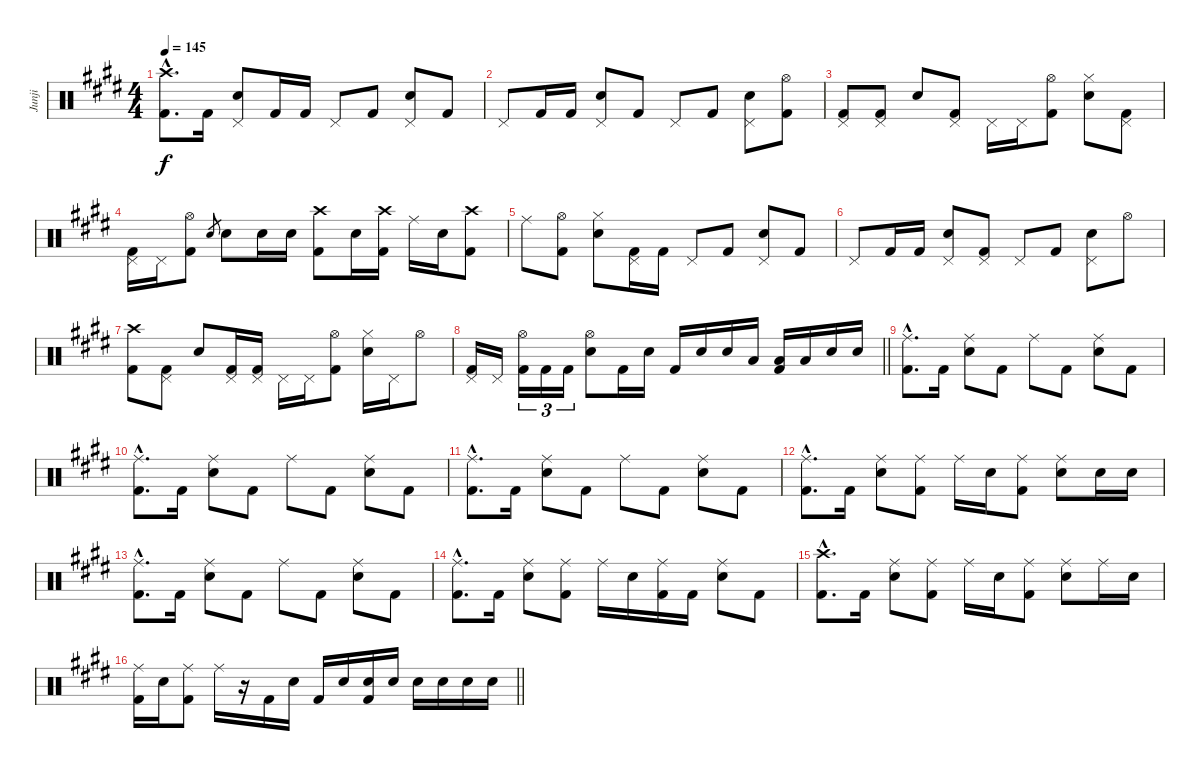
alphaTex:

\track ("Junji" "Junji") {instrument percussion}
\staff {score}
\articulation defaults
\ts (4 4)
\tempo 145
\clef neutral
\ks c#minor
("Crash high (hit)"{hac} "Kick (hit) 2"{hac}).8{d dy f} "Kick (hit) 2".16 ("Pedal Hi-Hat (hit)" "Snare (hit) 2").8 "Kick (hit) 2".16 "Kick (hit) 2".16 "Pedal Hi-Hat (hit)".8 "Kick (hit) 2".8 ("Pedal Hi-Hat (hit)" "Snare (hit) 2").8 "Kick (hit) 2".8 |
"Pedal Hi-Hat (hit)".8 "Kick (hit) 2".16 "Kick (hit) 2".16 ("Pedal Hi-Hat (hit)" "Snare (hit) 2").8 "Kick (hit) 2".8 "Pedal Hi-Hat (hit)".8 "Kick (hit) 2".8 ("Pedal Hi-Hat (hit)" "Snare (hit) 2").8 ("Hi-Hat (open)" "Kick (hit) 2").8 |
("Pedal Hi-Hat (hit)" "Kick (hit) 2").8 ("Pedal Hi-Hat (hit)" "Kick (hit) 2").8 "Snare (hit) 2".8 ("Pedal Hi-Hat (hit)" "Kick (hit) 2").8 "Pedal Hi-Hat (hit)".16 "Pedal Hi-Hat (hit)".16 ("Hi-Hat (open)" "Kick (hit) 2").8 ("Hi-Hat (closed)" "Snare (hit) 2").8 ("Pedal Hi-Hat (hit)" "Kick (hit) 2").8 |
("Pedal Hi-Hat (hit)" "Kick (hit) 2").16 "Pedal Hi-Hat (hit)".16 ("Hi-Hat (open)" "Kick (hit) 2").8 "Snare (hit) 2".8{gr} "Snare (hit) 2".8 "Snare (hit) 2".16 "Snare (hit) 2".16 ("Crash high (hit)" "Kick (hit) 2").8 "Snare (hit) 2".16 ("Crash high (hit)" "Kick (hit) 2").16 "Ride (middle)".16 "Snare (hit) 2".16 ("Crash high (hit)" "Kick (hit) 2").8 |
"Ride (middle)".8 ("Hi-Hat (open)" "Kick (hit) 2").8 ("Hi-Hat (closed)" "Snare (hit) 2").8 ("Pedal Hi-Hat (hit)" "Kick (hit) 2").16 "Kick (hit) 2".16 "Pedal Hi-Hat (hit)".8 "Kick (hit) 2".8 ("Pedal Hi-Hat (hit)" "Snare (hit) 2").8 "Kick (hit) 2".8 |
"Pedal Hi-Hat (hit)".8 "Kick (hit) 2".16 "Kick (hit) 2".16 ("Pedal Hi-Hat (hit)" "Snare (hit) 2").8 ("Pedal Hi-Hat (hit)" "Kick (hit) 2").8 "Pedal Hi-Hat (hit)".8 "Kick (hit) 2".8 ("Pedal Hi-Hat (hit)" "Snare (hit) 2").8 "Hi-Hat (open)".8 |
("Crash high (hit)" "Kick (hit) 2").8 ("Pedal Hi-Hat (hit)" "Kick (hit) 2").8 "Snare (hit) 2".8 ("Pedal Hi-Hat (hit)" "Kick (hit) 2").16 ("Pedal Hi-Hat (hit)" "Kick (hit) 2").16 "Pedal Hi-Hat (hit)".16 "Pedal Hi-Hat (hit)".16 ("Hi-Hat (open)" "Kick (hit) 2").8 ("Hi-Hat (closed)" "Snare (hit) 2").16 "Pedal Hi-Hat (hit)".16 "Hi-Hat (open)".8 |
\barLineRight lightlight
("Pedal Hi-Hat (hit)" "Kick (hit) 2").16 "Pedal Hi-Hat (hit)".16 ("Hi-Hat (open)" "Kick (hit) 2").16{tu (3 2)} "Kick (hit) 2".16{tu (3 2)} "Kick (hit) 2".16{tu (3 2)} ("Hi-Hat (open)" "Snare (hit) 2").8 "Kick (hit) 2".16 "Snare (hit) 2".16 "Kick (hit) 2".16 "Snare (hit) 2".16 "Snare (hit) 2".16 "Low Tom (hit)".16 ("Low Tom (hit)" "Kick (hit) 2").16 "Low Tom (hit)".16 "Electric Snare (hit)".16 "Electric Snare (hit)".16 |
("Ride (middle)"{hac} "Kick (hit) 2"{hac}).8{d} "Kick (hit) 2".16 ("Ride (middle)" "Snare (hit) 2").8 "Kick (hit) 2".8 "Ride (middle)".8 "Kick (hit) 2".8 ("Ride (middle)" "Snare (hit) 2").8 "Kick (hit) 2".8 |
("Ride (middle)"{hac} "Kick (hit) 2"{hac}).8{d} "Kick (hit) 2".16 ("Ride (middle)" "Snare (hit) 2").8 "Kick (hit) 2".8 "Ride (middle)".8 "Kick (hit) 2".8 ("Ride (middle)" "Snare (hit) 2").8 "Kick (hit) 2".8 |
("Ride (middle)"{hac} "Kick (hit) 2"{hac}).8{d} "Kick (hit) 2".16 ("Ride (middle)" "Snare (hit) 2").8 "Kick (hit) 2".8 "Ride (middle)".8 "Kick (hit) 2".8 ("Ride (middle)" "Snare (hit) 2").8 "Kick (hit) 2".8 |
("Ride (middle)"{hac} "Kick (hit) 2"{hac}).8{d} "Kick (hit) 2".16 ("Ride (middle)" "Snare (hit) 2").8 ("Ride (middle)" "Kick (hit) 2").8 "Ride (middle)".16 "Snare (hit) 2".16 ("Ride (middle)" "Kick (hit) 2").8 ("Ride (middle)" "Snare (hit) 2").8 "Electric Snare (hit)".16 "Electric Snare (hit)".16 |
("Ride (middle)"{hac} "Kick (hit) 2"{hac}).8{d} "Kick (hit) 2".16 ("Ride (middle)" "Snare (hit) 2").8 "Kick (hit) 2".8 "Ride (middle)".8 "Kick (hit) 2".8 ("Ride (middle)" "Snare (hit) 2").8 "Kick (hit) 2".8 |
("Ride (middle)"{hac} "Kick (hit) 2"{hac}).8{d} "Kick (hit) 2".16 ("Ride (middle)" "Snare (hit) 2").8 ("Ride (middle)" "Kick (hit) 2").8 "Ride (middle)".16 "Snare (hit) 2".16 ("Ride (middle)" "Kick (hit) 2").16 "Kick (hit) 2".16 ("Ride (middle)" "Snare (hit) 2").8 "Kick (hit) 2".8 |
("Crash high (hit)"{hac} "Kick (hit) 2"{hac}).8{d} "Kick (hit) 2".16 ("Ride (middle)" "Snare (hit) 2").8 ("Ride (middle)" "Kick (hit) 2").8 "Ride (middle)".16 "Snare (hit) 2".16 ("Ride (middle)" "Kick (hit) 2").8 ("Ride (middle)" "Snare (hit) 2").8 "Ride (middle)".16 "Snare (hit) 2".16 |
\barLineRight lightlight
("Ride (middle)" "Kick (hit) 2").16 "Snare (hit) 2".16 ("Ride (middle)" "Kick (hit) 2").8 "Ride (middle)".16 r.16 "Kick (hit) 2".16 "Snare (hit) 2".16 "Kick (hit) 2".16 "Snare (hit) 2".16 ("Snare (hit) 2" "Kick (hit) 2").16 "Snare (hit) 2".16 "Snare (hit) 2".16 "Snare (hit) 2".16 "Snare (hit) 2".16 "Snare (hit) 2".16
